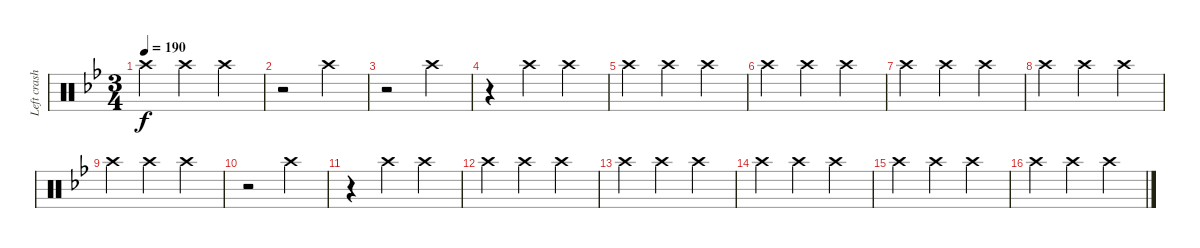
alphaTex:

\track ("Left crash" "Left crash") {instrument percussion}
\staff {score}
\articulation defaults
\ts (3 4)
\tempo 190
\clef neutral
\ks bb "Crash high (hit)".4{dy f} "Crash high (hit)".4 "Crash high (hit)".4
|
r.2 "Crash high (hit)".4 |
r.2 "Crash high (hit)".4 |
r.4 "Crash high (hit)".4 "Crash high (hit)".4 |
"Crash high (hit)".4 "Crash high (hit)".4 "Crash high (hit)".4 |
"Crash high (hit)".4 "Crash high (hit)".4 "Crash high (hit)".4 |
"Crash high (hit)".4 "Crash high (hit)".4 "Crash high (hit)".4 |
"Crash high (hit)".4 "Crash high (hit)".4 "Crash high (hit)".4 |
"Crash high (hit)".4 "Crash high (hit)".4 "Crash high (hit)".4 |
r.2 "Crash high (hit)".4 |
r.4 "Crash high (hit)".4 "Crash high (hit)".4 |
"Crash high (hit)".4 "Crash high (hit)".4 "Crash high (hit)".4 |
"Crash high (hit)".4 "Crash high (hit)".4 "Crash high (hit)".4 |
"Crash high (hit)".4 "Crash high (hit)".4 "Crash high (hit)".4 |
"Crash high (hit)".4 "Crash high (hit)".4 "Crash high (hit)".4 |
"Crash high (hit)".4 "Crash high (hit)".4 "Crash high (hit)".4
